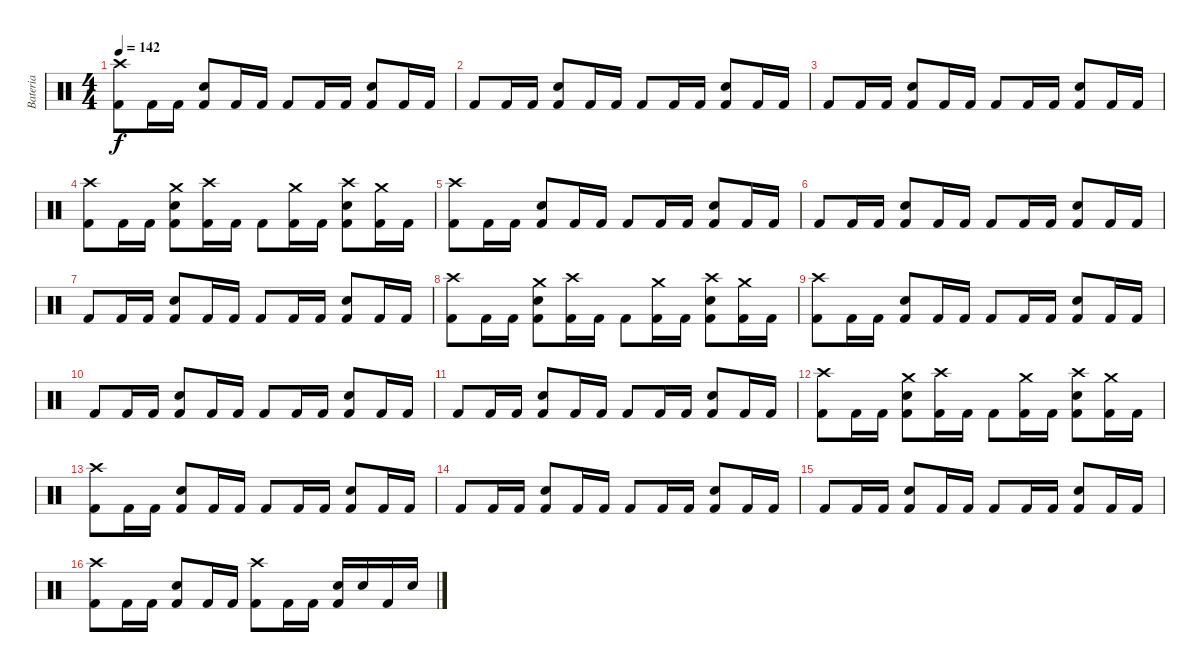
\track ("Bateria" "Bateria") {instrument percussion}
\staff {score}
\articulation defaults
\ts (4 4)
\tempo 142
\clef neutral
\ks c
("Crash high (hit)" "Kick (hit) 2").8{dy f} "Kick (hit) 2".16 "Kick (hit) 2".16 ("Electric Snare (hit)" "Kick (hit) 2").8 "Kick (hit) 2".16 "Kick (hit) 2".16 "Kick (hit) 2".8 "Kick (hit) 2".16 "Kick (hit) 2".16 ("Electric Snare (hit)" "Kick (hit) 2").8 "Kick (hit) 2".16 "Kick (hit) 2".16 |
"Kick (hit) 2".8 "Kick (hit) 2".16 "Kick (hit) 2".16 ("Electric Snare (hit)" "Kick (hit) 2").8 "Kick (hit) 2".16 "Kick (hit) 2".16 "Kick (hit) 2".8 "Kick (hit) 2".16 "Kick (hit) 2".16 ("Electric Snare (hit)" "Kick (hit) 2").8 "Kick (hit) 2".16 "Kick (hit) 2".16 |
"Kick (hit) 2".8 "Kick (hit) 2".16 "Kick (hit) 2".16 ("Electric Snare (hit)" "Kick (hit) 2").8 "Kick (hit) 2".16 "Kick (hit) 2".16 "Kick (hit) 2".8 "Kick (hit) 2".16 "Kick (hit) 2".16 ("Electric Snare (hit)" "Kick (hit) 2").8 "Kick (hit) 2".16 "Kick (hit) 2".16 |
("Crash high (hit)" "Kick (hit) 2").8 "Kick (hit) 2".16 "Kick (hit) 2".16 ("Electric Snare (hit)" "Kick (hit) 2" "Crash medium (hit)").8 ("Kick (hit) 2" "Crash high (hit)").16 "Kick (hit) 2".16 "Kick (hit) 2".8 ("Kick (hit) 2" "Crash medium (hit)").16 "Kick (hit) 2".16 ("Electric Snare (hit)" "Kick (hit) 2" "Crash high (hit)").8 ("Kick (hit) 2" "Crash medium (hit)").16 "Kick (hit) 2".16 |
("Crash high (hit)" "Kick (hit) 2").8 "Kick (hit) 2".16 "Kick (hit) 2".16 ("Electric Snare (hit)" "Kick (hit) 2").8 "Kick (hit) 2".16 "Kick (hit) 2".16 "Kick (hit) 2".8 "Kick (hit) 2".16 "Kick (hit) 2".16 ("Electric Snare (hit)" "Kick (hit) 2").8 "Kick (hit) 2".16 "Kick (hit) 2".16 |
"Kick (hit) 2".8 "Kick (hit) 2".16 "Kick (hit) 2".16 ("Electric Snare (hit)" "Kick (hit) 2").8 "Kick (hit) 2".16 "Kick (hit) 2".16 "Kick (hit) 2".8 "Kick (hit) 2".16 "Kick (hit) 2".16 ("Electric Snare (hit)" "Kick (hit) 2").8 "Kick (hit) 2".16 "Kick (hit) 2".16 |
"Kick (hit) 2".8 "Kick (hit) 2".16 "Kick (hit) 2".16 ("Electric Snare (hit)" "Kick (hit) 2").8 "Kick (hit) 2".16 "Kick (hit) 2".16 "Kick (hit) 2".8 "Kick (hit) 2".16 "Kick (hit) 2".16 ("Electric Snare (hit)" "Kick (hit) 2").8 "Kick (hit) 2".16 "Kick (hit) 2".16 |
("Crash high (hit)" "Kick (hit) 2").8 "Kick (hit) 2".16 "Kick (hit) 2".16 ("Electric Snare (hit)" "Kick (hit) 2" "Crash medium (hit)").8 ("Kick (hit) 2" "Crash high (hit)").16 "Kick (hit) 2".16 "Kick (hit) 2".8 ("Kick (hit) 2" "Crash medium (hit)").16 "Kick (hit) 2".16 ("Electric Snare (hit)" "Kick (hit) 2" "Crash high (hit)").8 ("Kick (hit) 2" "Crash medium (hit)").16 "Kick (hit) 2".16 |
("Crash high (hit)" "Kick (hit) 2").8 "Kick (hit) 2".16 "Kick (hit) 2".16 ("Electric Snare (hit)" "Kick (hit) 2").8 "Kick (hit) 2".16 "Kick (hit) 2".16 "Kick (hit) 2".8 "Kick (hit) 2".16 "Kick (hit) 2".16 ("Electric Snare (hit)" "Kick (hit) 2").8 "Kick (hit) 2".16 "Kick (hit) 2".16 |
"Kick (hit) 2".8 "Kick (hit) 2".16 "Kick (hit) 2".16 ("Electric Snare (hit)" "Kick (hit) 2").8 "Kick (hit) 2".16 "Kick (hit) 2".16 "Kick (hit) 2".8 "Kick (hit) 2".16 "Kick (hit) 2".16 ("Electric Snare (hit)" "Kick (hit) 2").8 "Kick (hit) 2".16 "Kick (hit) 2".16 |
"Kick (hit) 2".8 "Kick (hit) 2".16 "Kick (hit) 2".16 ("Electric Snare (hit)" "Kick (hit) 2").8 "Kick (hit) 2".16 "Kick (hit) 2".16 "Kick (hit) 2".8 "Kick (hit) 2".16 "Kick (hit) 2".16 ("Electric Snare (hit)" "Kick (hit) 2").8 "Kick (hit) 2".16 "Kick (hit) 2".16 |
("Crash high (hit)" "Kick (hit) 2").8 "Kick (hit) 2".16 "Kick (hit) 2".16 ("Electric Snare (hit)" "Kick (hit) 2" "Crash medium (hit)").8 ("Kick (hit) 2" "Crash high (hit)").16 "Kick (hit) 2".16 "Kick (hit) 2".8 ("Kick (hit) 2" "Crash medium (hit)").16 "Kick (hit) 2".16 ("Electric Snare (hit)" "Kick (hit) 2" "Crash high (hit)").8 ("Kick (hit) 2" "Crash medium (hit)").16 "Kick (hit) 2".16 |
("Crash high (hit)" "Kick (hit) 2").8 "Kick (hit) 2".16 "Kick (hit) 2".16 ("Electric Snare (hit)" "Kick (hit) 2").8 "Kick (hit) 2".16 "Kick (hit) 2".16 "Kick (hit) 2".8 "Kick (hit) 2".16 "Kick (hit) 2".16 ("Electric Snare (hit)" "Kick (hit) 2").8 "Kick (hit) 2".16 "Kick (hit) 2".16 |
"Kick (hit) 2".8 "Kick (hit) 2".16 "Kick (hit) 2".16 ("Electric Snare (hit)" "Kick (hit) 2").8 "Kick (hit) 2".16 "Kick (hit) 2".16 "Kick (hit) 2".8 "Kick (hit) 2".16 "Kick (hit) 2".16 ("Electric Snare (hit)" "Kick (hit) 2").8 "Kick (hit) 2".16 "Kick (hit) 2".16 |
"Kick (hit) 2".8 "Kick (hit) 2".16 "Kick (hit) 2".16 ("Electric Snare (hit)" "Kick (hit) 2").8 "Kick (hit) 2".16 "Kick (hit) 2".16 "Kick (hit) 2".8 "Kick (hit) 2".16 "Kick (hit) 2".16 ("Electric Snare (hit)" "Kick (hit) 2").8 "Kick (hit) 2".16 "Kick (hit) 2".16 |
("Crash high (hit)" "Kick (hit) 2").8 "Kick (hit) 2".16 "Kick (hit) 2".16 ("Electric Snare (hit)" "Kick (hit) 2").8 "Kick (hit) 2".16 "Kick (hit) 2".16 ("Crash high (hit)" "Kick (hit) 2").8 "Kick (hit) 2".16 "Kick (hit) 2".16 ("Electric Snare (hit)" "Kick (hit) 2").16 "Electric Snare (hit)".16 "Kick (hit) 2".16 "Electric Snare (hit)".16
